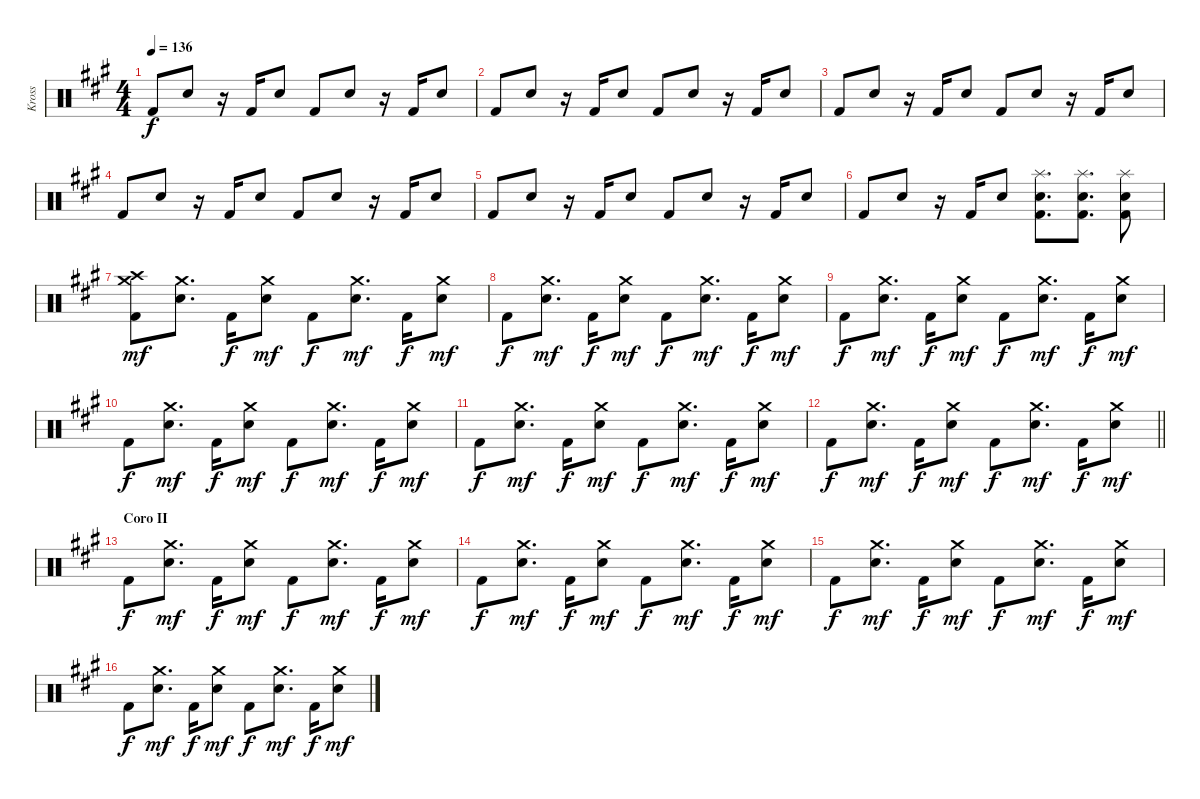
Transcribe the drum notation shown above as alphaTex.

\track ("Kross" "Kross") {instrument percussion}
\staff {score}
\articulation defaults
\ts (4 4)
\tempo 136
\clef neutral
\ks a "Kick (hit) 2".8{dy f} "Snare (hit) 2".8
r.16 "Kick (hit) 2".16 "Snare (hit) 2".8 "Kick (hit) 2".8 "Snare (hit) 2".8 r.16 "Kick (hit) 2".16 "Snare (hit) 2".8 |
"Kick (hit) 2".8 "Snare (hit) 2".8 r.16 "Kick (hit) 2".16 "Snare (hit) 2".8 "Kick (hit) 2".8 "Snare (hit) 2".8 r.16 "Kick (hit) 2".16 "Snare (hit) 2".8 |
"Kick (hit) 2".8 "Snare (hit) 2".8 r.16 "Kick (hit) 2".16 "Snare (hit) 2".8 "Kick (hit) 2".8 "Snare (hit) 2".8 r.16 "Kick (hit) 2".16 "Snare (hit) 2".8 |
"Kick (hit) 2".8 "Snare (hit) 2".8 r.16 "Kick (hit) 2".16 "Snare (hit) 2".8 "Kick (hit) 2".8 "Snare (hit) 2".8 r.16 "Kick (hit) 2".16 "Snare (hit) 2".8 |
"Kick (hit) 2".8 "Snare (hit) 2".8 r.16 "Kick (hit) 2".16 "Snare (hit) 2".8 "Kick (hit) 2".8 "Snare (hit) 2".8 r.16 "Kick (hit) 2".16 "Snare (hit) 2".8 |
"Kick (hit) 2".8 "Snare (hit) 2".8 r.16 "Kick (hit) 2".16 "Snare (hit) 2".8 ("Splash (hit)" "Snare (hit) 2" "Kick (hit) 2").8{d} ("Splash (hit)" "Snare (hit) 2" "Kick (hit) 2").8{d} ("Splash (hit)" "Snare (hit) 2" "Kick (hit) 2").8 |
("Crash medium (hit)" "Crash high (hit)" "Kick (hit) 2").8{dy mf} ("Crash medium (hit)" "Snare (hit) 2").8{d} "Kick (hit) 2".16{dy f} ("Crash medium (hit)" "Snare (hit) 2").8{dy mf} "Kick (hit) 2".8{dy f} ("Crash medium (hit)" "Snare (hit) 2").8{d dy mf} "Kick (hit) 2".16{dy f} ("Crash medium (hit)" "Snare (hit) 2").8{dy mf} |
"Kick (hit) 2".8{dy f} ("Crash medium (hit)" "Snare (hit) 2").8{d dy mf} "Kick (hit) 2".16{dy f} ("Crash medium (hit)" "Snare (hit) 2").8{dy mf} "Kick (hit) 2".8{dy f} ("Crash medium (hit)" "Snare (hit) 2").8{d dy mf} "Kick (hit) 2".16{dy f} ("Crash medium (hit)" "Snare (hit) 2").8{dy mf} |
"Kick (hit) 2".8{dy f} ("Crash medium (hit)" "Snare (hit) 2").8{d dy mf} "Kick (hit) 2".16{dy f} ("Crash medium (hit)" "Snare (hit) 2").8{dy mf} "Kick (hit) 2".8{dy f} ("Crash medium (hit)" "Snare (hit) 2").8{d dy mf} "Kick (hit) 2".16{dy f} ("Crash medium (hit)" "Snare (hit) 2").8{dy mf} |
"Kick (hit) 2".8{dy f} ("Crash medium (hit)" "Snare (hit) 2").8{d dy mf} "Kick (hit) 2".16{dy f} ("Crash medium (hit)" "Snare (hit) 2").8{dy mf} "Kick (hit) 2".8{dy f} ("Crash medium (hit)" "Snare (hit) 2").8{d dy mf} "Kick (hit) 2".16{dy f} ("Crash medium (hit)" "Snare (hit) 2").8{dy mf} |
"Kick (hit) 2".8{dy f} ("Crash medium (hit)" "Snare (hit) 2").8{d dy mf} "Kick (hit) 2".16{dy f} ("Crash medium (hit)" "Snare (hit) 2").8{dy mf} "Kick (hit) 2".8{dy f} ("Crash medium (hit)" "Snare (hit) 2").8{d dy mf} "Kick (hit) 2".16{dy f} ("Crash medium (hit)" "Snare (hit) 2").8{dy mf} |
\barLineRight lightlight "Kick (hit) 2".8{dy f}
("Crash medium (hit)" "Snare (hit) 2").8{d dy mf} "Kick (hit) 2".16{dy f} ("Crash medium (hit)" "Snare (hit) 2").8{dy mf} "Kick (hit) 2".8{dy f} ("Crash medium (hit)" "Snare (hit) 2").8{d dy mf} "Kick (hit) 2".16{dy f} ("Crash medium (hit)" "Snare (hit) 2").8{dy mf} |
\section ("" "Coro II")
"Kick (hit) 2".8{dy f} ("Crash medium (hit)" "Snare (hit) 2").8{d dy mf} "Kick (hit) 2".16{dy f} ("Crash medium (hit)" "Snare (hit) 2").8{dy mf} "Kick (hit) 2".8{dy f} ("Crash medium (hit)" "Snare (hit) 2").8{d dy mf} "Kick (hit) 2".16{dy f} ("Crash medium (hit)" "Snare (hit) 2").8{dy mf} |
"Kick (hit) 2".8{dy f} ("Crash medium (hit)" "Snare (hit) 2").8{d dy mf} "Kick (hit) 2".16{dy f} ("Crash medium (hit)" "Snare (hit) 2").8{dy mf} "Kick (hit) 2".8{dy f} ("Crash medium (hit)" "Snare (hit) 2").8{d dy mf} "Kick (hit) 2".16{dy f} ("Crash medium (hit)" "Snare (hit) 2").8{dy mf} |
"Kick (hit) 2".8{dy f} ("Crash medium (hit)" "Snare (hit) 2").8{d dy mf} "Kick (hit) 2".16{dy f} ("Crash medium (hit)" "Snare (hit) 2").8{dy mf} "Kick (hit) 2".8{dy f} ("Crash medium (hit)" "Snare (hit) 2").8{d dy mf} "Kick (hit) 2".16{dy f} ("Crash medium (hit)" "Snare (hit) 2").8{dy mf} |
"Kick (hit) 2".8{dy f} ("Crash medium (hit)" "Snare (hit) 2").8{d dy mf} "Kick (hit) 2".16{dy f} ("Crash medium (hit)" "Snare (hit) 2").8{dy mf} "Kick (hit) 2".8{dy f} ("Crash medium (hit)" "Snare (hit) 2").8{d dy mf} "Kick (hit) 2".16{dy f} ("Crash medium (hit)" "Snare (hit) 2").8{dy mf}
